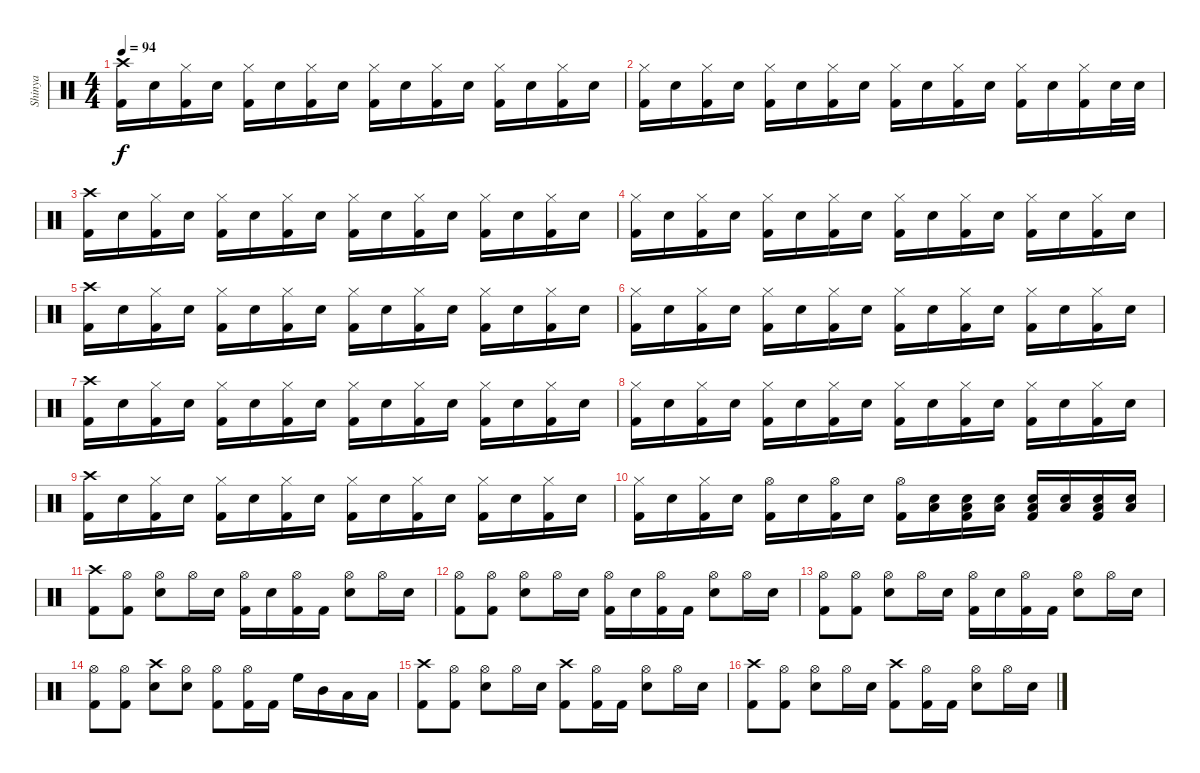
\track ("Shinya" "Shinya") {instrument percussion}
\staff {score}
\articulation defaults
\ts (4 4)
\tempo 94
\clef neutral
\ks c
("Crash high (hit)" "Kick (hit) 2").16{dy f} "Snare (hit) 2".16 ("Hi-Hat (closed)" "Kick (hit) 2").16 "Snare (hit) 2".16 ("Hi-Hat (closed)" "Kick (hit) 2").16 "Snare (hit) 2".16 ("Hi-Hat (closed)" "Kick (hit) 2").16 "Snare (hit) 2".16 ("Hi-Hat (closed)" "Kick (hit) 2").16 "Snare (hit) 2".16 ("Hi-Hat (closed)" "Kick (hit) 2").16 "Snare (hit) 2".16 ("Hi-Hat (closed)" "Kick (hit) 2").16 "Snare (hit) 2".16 ("Hi-Hat (closed)" "Kick (hit) 2").16 "Snare (hit) 2".16 |
("Hi-Hat (closed)" "Kick (hit) 2").16 "Snare (hit) 2".16 ("Hi-Hat (closed)" "Kick (hit) 2").16 "Snare (hit) 2".16 ("Hi-Hat (closed)" "Kick (hit) 2").16 "Snare (hit) 2".16 ("Hi-Hat (closed)" "Kick (hit) 2").16 "Snare (hit) 2".16 ("Hi-Hat (closed)" "Kick (hit) 2").16 "Snare (hit) 2".16 ("Hi-Hat (closed)" "Kick (hit) 2").16 "Snare (hit) 2".16 ("Hi-Hat (closed)" "Kick (hit) 2").16 "Snare (hit) 2".16 ("Hi-Hat (closed)" "Kick (hit) 2").16 "Snare (hit) 2".32 "Snare (hit) 2".32 |
("Crash high (hit)" "Kick (hit) 2").16 "Snare (hit) 2".16 ("Hi-Hat (closed)" "Kick (hit) 2").16 "Snare (hit) 2".16 ("Hi-Hat (closed)" "Kick (hit) 2").16 "Snare (hit) 2".16 ("Hi-Hat (closed)" "Kick (hit) 2").16 "Snare (hit) 2".16 ("Hi-Hat (closed)" "Kick (hit) 2").16 "Snare (hit) 2".16 ("Hi-Hat (closed)" "Kick (hit) 2").16 "Snare (hit) 2".16 ("Hi-Hat (closed)" "Kick (hit) 2").16 "Snare (hit) 2".16 ("Hi-Hat (closed)" "Kick (hit) 2").16 "Snare (hit) 2".16 |
("Hi-Hat (closed)" "Kick (hit) 2").16 "Snare (hit) 2".16 ("Hi-Hat (closed)" "Kick (hit) 2").16 "Snare (hit) 2".16 ("Hi-Hat (closed)" "Kick (hit) 2").16 "Snare (hit) 2".16 ("Hi-Hat (closed)" "Kick (hit) 2").16 "Snare (hit) 2".16 ("Hi-Hat (closed)" "Kick (hit) 2").16 "Snare (hit) 2".16 ("Hi-Hat (closed)" "Kick (hit) 2").16 "Snare (hit) 2".16 ("Hi-Hat (closed)" "Kick (hit) 2").16 "Snare (hit) 2".16 ("Hi-Hat (closed)" "Kick (hit) 2").16 "Snare (hit) 2".16 |
("Crash high (hit)" "Kick (hit) 2").16 "Snare (hit) 2".16 ("Hi-Hat (closed)" "Kick (hit) 2").16 "Snare (hit) 2".16 ("Hi-Hat (closed)" "Kick (hit) 2").16 "Snare (hit) 2".16 ("Hi-Hat (closed)" "Kick (hit) 2").16 "Snare (hit) 2".16 ("Hi-Hat (closed)" "Kick (hit) 2").16 "Snare (hit) 2".16 ("Hi-Hat (closed)" "Kick (hit) 2").16 "Snare (hit) 2".16 ("Hi-Hat (closed)" "Kick (hit) 2").16 "Snare (hit) 2".16 ("Hi-Hat (closed)" "Kick (hit) 2").16 "Snare (hit) 2".16 |
("Hi-Hat (closed)" "Kick (hit) 2").16 "Snare (hit) 2".16 ("Hi-Hat (closed)" "Kick (hit) 2").16 "Snare (hit) 2".16 ("Hi-Hat (closed)" "Kick (hit) 2").16 "Snare (hit) 2".16 ("Hi-Hat (closed)" "Kick (hit) 2").16 "Snare (hit) 2".16 ("Hi-Hat (closed)" "Kick (hit) 2").16 "Snare (hit) 2".16 ("Hi-Hat (closed)" "Kick (hit) 2").16 "Snare (hit) 2".16 ("Hi-Hat (closed)" "Kick (hit) 2").16 "Snare (hit) 2".16 ("Hi-Hat (closed)" "Kick (hit) 2").16 "Snare (hit) 2".16 |
("Crash high (hit)" "Kick (hit) 2").16 "Snare (hit) 2".16 ("Hi-Hat (closed)" "Kick (hit) 2").16 "Snare (hit) 2".16 ("Hi-Hat (closed)" "Kick (hit) 2").16 "Snare (hit) 2".16 ("Hi-Hat (closed)" "Kick (hit) 2").16 "Snare (hit) 2".16 ("Hi-Hat (closed)" "Kick (hit) 2").16 "Snare (hit) 2".16 ("Hi-Hat (closed)" "Kick (hit) 2").16 "Snare (hit) 2".16 ("Hi-Hat (closed)" "Kick (hit) 2").16 "Snare (hit) 2".16 ("Hi-Hat (closed)" "Kick (hit) 2").16 "Snare (hit) 2".16 |
("Hi-Hat (closed)" "Kick (hit) 2").16 "Snare (hit) 2".16 ("Hi-Hat (closed)" "Kick (hit) 2").16 "Snare (hit) 2".16 ("Hi-Hat (closed)" "Kick (hit) 2").16 "Snare (hit) 2".16 ("Hi-Hat (closed)" "Kick (hit) 2").16 "Snare (hit) 2".16 ("Hi-Hat (closed)" "Kick (hit) 2").16 "Snare (hit) 2".16 ("Hi-Hat (closed)" "Kick (hit) 2").16 "Snare (hit) 2".16 ("Hi-Hat (closed)" "Kick (hit) 2").16 "Snare (hit) 2".16 ("Hi-Hat (closed)" "Kick (hit) 2").16 "Snare (hit) 2".16 |
("Crash high (hit)" "Kick (hit) 2").16 "Snare (hit) 2".16 ("Hi-Hat (closed)" "Kick (hit) 2").16 "Snare (hit) 2".16 ("Hi-Hat (closed)" "Kick (hit) 2").16 "Snare (hit) 2".16 ("Hi-Hat (closed)" "Kick (hit) 2").16 "Snare (hit) 2".16 ("Hi-Hat (closed)" "Kick (hit) 2").16 "Snare (hit) 2".16 ("Hi-Hat (closed)" "Kick (hit) 2").16 "Snare (hit) 2".16 ("Hi-Hat (closed)" "Kick (hit) 2").16 "Snare (hit) 2".16 ("Hi-Hat (closed)" "Kick (hit) 2").16 "Snare (hit) 2".16 |
("Hi-Hat (closed)" "Kick (hit) 2").16 "Snare (hit) 2".16 ("Hi-Hat (closed)" "Kick (hit) 2").16 "Snare (hit) 2".16 ("Hi-Hat (open)" "Kick (hit) 2").16 "Snare (hit) 2".16 ("Hi-Hat (open)" "Kick (hit) 2").16 "Snare (hit) 2".16 ("Hi-Hat (open)" "Kick (hit) 2").16 ("Snare (hit) 2" "Low Tom (hit)").16 ("Snare (hit) 2" "Kick (hit) 2" "Low Tom (hit)").16 ("Snare (hit) 2" "Low Tom (hit)").16 ("Snare (hit) 2" "Kick (hit) 2" "Low Tom (hit)").16 ("Snare (hit) 2" "Low Tom (hit)").16 ("Snare (hit) 2" "Kick (hit) 2" "Low Tom (hit)").16 ("Snare (hit) 2" "Low Tom (hit)").16 |
("Crash high (hit)" "Kick (hit) 2").8 ("Hi-Hat (open)" "Kick (hit) 2").8 ("Hi-Hat (open)" "Snare (hit) 2").8 "Hi-Hat (open)".16 "Snare (hit) 2".16 ("Hi-Hat (open)" "Kick (hit) 2").16 "Snare (hit) 2".16 ("Hi-Hat (open)" "Kick (hit) 2").16 "Kick (hit) 2".16 ("Hi-Hat (open)" "Snare (hit) 2").8 "Hi-Hat (open)".16 "Snare (hit) 2".16 |
("Hi-Hat (open)" "Kick (hit) 2").8 ("Hi-Hat (open)" "Kick (hit) 2").8 ("Hi-Hat (open)" "Snare (hit) 2").8 "Hi-Hat (open)".16 "Snare (hit) 2".16 ("Hi-Hat (open)" "Kick (hit) 2").16 "Snare (hit) 2".16 ("Hi-Hat (open)" "Kick (hit) 2").16 "Kick (hit) 2".16 ("Hi-Hat (open)" "Snare (hit) 2").8 "Hi-Hat (open)".16 "Snare (hit) 2".16 |
("Hi-Hat (open)" "Kick (hit) 2").8 ("Hi-Hat (open)" "Kick (hit) 2").8 ("Hi-Hat (open)" "Snare (hit) 2").8 "Hi-Hat (open)".16 "Snare (hit) 2".16 ("Hi-Hat (open)" "Kick (hit) 2").16 "Snare (hit) 2".16 ("Hi-Hat (open)" "Kick (hit) 2").16 "Kick (hit) 2".16 ("Hi-Hat (open)" "Snare (hit) 2").8 "Hi-Hat (open)".16 "Snare (hit) 2".16 |
("Hi-Hat (open)" "Kick (hit) 2").8 ("Hi-Hat (open)" "Kick (hit) 2").8 ("Crash high (hit)" "Snare (hit) 2").8 ("Hi-Hat (open)" "Snare (hit) 2").8 ("Hi-Hat (open)" "Kick (hit) 2").8 ("Hi-Hat (open)" "Kick (hit) 2").16 "Kick (hit) 2".16 "High Floor Tom (hit)".16 "Mid Tom (hit)".16 "Low Tom (hit)".16 "Low Tom (hit)".16 |
("Kick (hit) 2" "Crash high (hit)").8 ("Kick (hit) 2" "Hi-Hat (open)").8 ("Snare (hit) 2" "Hi-Hat (open)").8 "Hi-Hat (open)".16 "Snare (hit) 2".16 ("Crash high (hit)" "Kick (hit) 2").8 ("Hi-Hat (open)" "Kick (hit) 2").16 "Kick (hit) 2".16 ("Hi-Hat (open)" "Snare (hit) 2").8 "Hi-Hat (open)".16 "Snare (hit) 2".16 |
("Kick (hit) 2" "Crash high (hit)").8 ("Kick (hit) 2" "Hi-Hat (open)").8 ("Snare (hit) 2" "Hi-Hat (open)").8 "Hi-Hat (open)".16 "Snare (hit) 2".16 ("Crash high (hit)" "Kick (hit) 2").8 ("Hi-Hat (open)" "Kick (hit) 2").16 "Kick (hit) 2".16 ("Hi-Hat (open)" "Snare (hit) 2").8 "Hi-Hat (open)".16 "Snare (hit) 2".16
